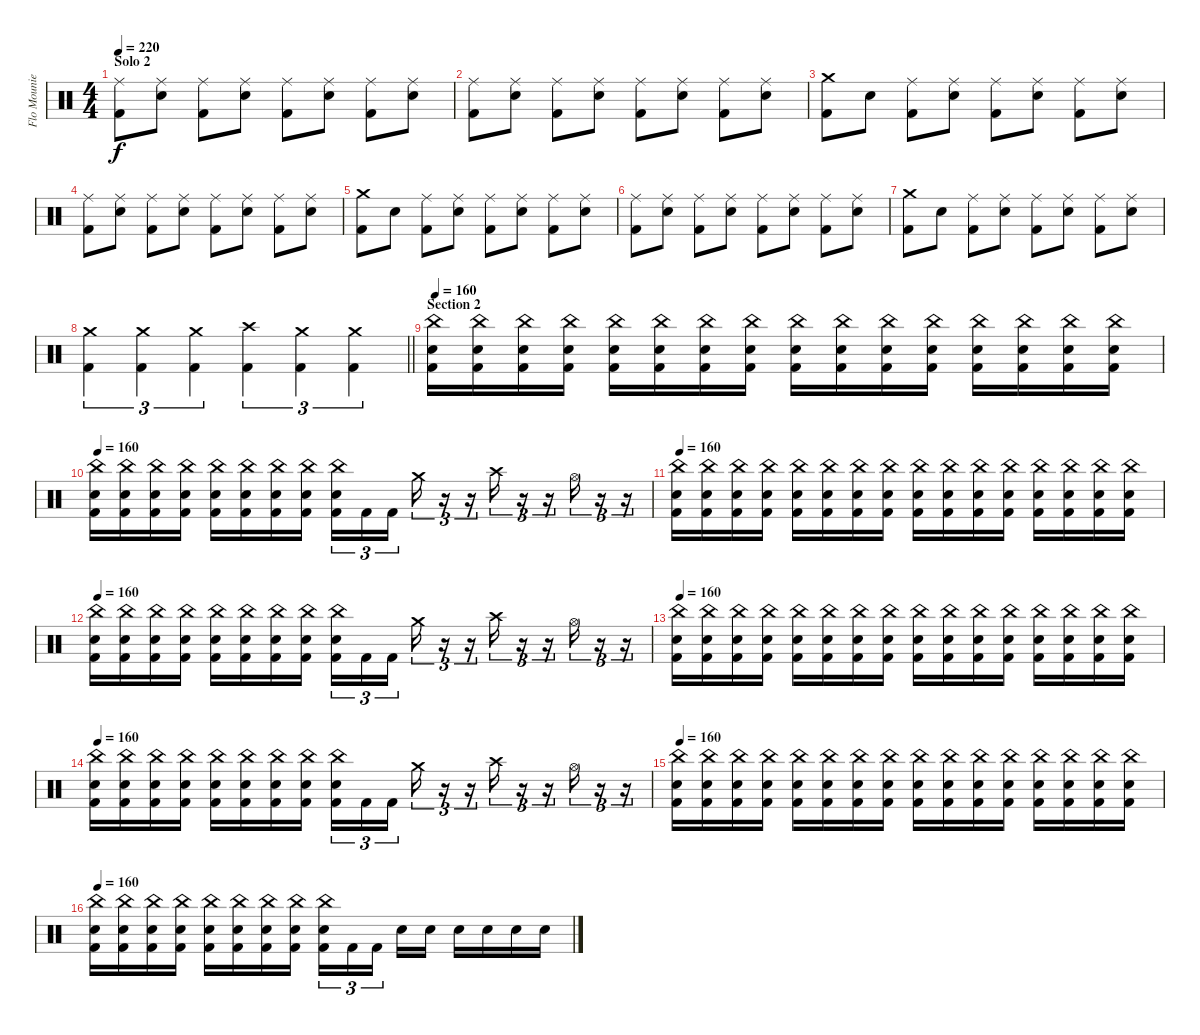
\track ("Flo Mounier" "Flo Mounie") {instrument percussion}
\staff {score}
\articulation defaults
\ts (4 4)
\section ("" "Solo 2")
\tempo 220
\clef neutral
\ks c
("Ride (middle)" "Kick (hit) 2").8{dy f} ("Ride (middle)" "Electric Snare (hit)").8 ("Ride (middle)" "Kick (hit) 2").8 ("Ride (middle)" "Electric Snare (hit)").8 ("Ride (middle)" "Kick (hit) 2").8 ("Ride (middle)" "Electric Snare (hit)").8 ("Ride (middle)" "Kick (hit) 2").8 ("Ride (middle)" "Electric Snare (hit)").8 |
("Ride (middle)" "Kick (hit) 2").8 ("Ride (middle)" "Electric Snare (hit)").8 ("Ride (middle)" "Kick (hit) 2").8 ("Ride (middle)" "Electric Snare (hit)").8 ("Ride (middle)" "Kick (hit) 2").8 ("Ride (middle)" "Electric Snare (hit)").8 ("Ride (middle)" "Kick (hit) 2").8 ("Ride (middle)" "Electric Snare (hit)").8 |
("Crash medium (hit)" "Kick (hit) 2").8 "Electric Snare (hit)".8 ("Ride (middle)" "Kick (hit) 2").8 ("Ride (middle)" "Electric Snare (hit)").8 ("Ride (middle)" "Kick (hit) 2").8 ("Ride (middle)" "Electric Snare (hit)").8 ("Ride (middle)" "Kick (hit) 2").8 ("Ride (middle)" "Electric Snare (hit)").8 |
("Ride (middle)" "Kick (hit) 2").8 ("Ride (middle)" "Electric Snare (hit)").8 ("Ride (middle)" "Kick (hit) 2").8 ("Ride (middle)" "Electric Snare (hit)").8 ("Ride (middle)" "Kick (hit) 2").8 ("Ride (middle)" "Electric Snare (hit)").8 ("Ride (middle)" "Kick (hit) 2").8 ("Ride (middle)" "Electric Snare (hit)").8 |
("Crash medium (hit)" "Kick (hit) 2").8 "Electric Snare (hit)".8 ("Ride (middle)" "Kick (hit) 2").8 ("Ride (middle)" "Electric Snare (hit)").8 ("Ride (middle)" "Kick (hit) 2").8 ("Ride (middle)" "Electric Snare (hit)").8 ("Ride (middle)" "Kick (hit) 2").8 ("Ride (middle)" "Electric Snare (hit)").8 |
("Ride (middle)" "Kick (hit) 2").8 ("Ride (middle)" "Electric Snare (hit)").8 ("Ride (middle)" "Kick (hit) 2").8 ("Ride (middle)" "Electric Snare (hit)").8 ("Ride (middle)" "Kick (hit) 2").8 ("Ride (middle)" "Electric Snare (hit)").8 ("Ride (middle)" "Kick (hit) 2").8 ("Ride (middle)" "Electric Snare (hit)").8 |
("Crash medium (hit)" "Kick (hit) 2").8 "Electric Snare (hit)".8 ("Ride (middle)" "Kick (hit) 2").8 ("Ride (middle)" "Electric Snare (hit)").8 ("Ride (middle)" "Kick (hit) 2").8 ("Ride (middle)" "Electric Snare (hit)").8 ("Ride (middle)" "Kick (hit) 2").8 ("Ride (middle)" "Electric Snare (hit)").8 |
\barLineRight lightlight
("Crash medium (hit)" "Kick (hit) 2").4{tu (3 2)} ("Crash medium (hit)" "Kick (hit) 2").4{tu (3 2)} ("Crash medium (hit)" "Kick (hit) 2").4{tu (3 2)} ("Crash high (hit)" "Kick (hit) 2").4{tu (3 2)} ("Crash medium (hit)" "Kick (hit) 2").4{tu (3 2)} ("Crash medium (hit)" "Kick (hit) 2").4{tu (3 2)} |
\section ("" "Section 2")
\tempo 160
("China (hit)" "Electric Snare (hit)" "Kick (hit) 2").16 ("China (hit)" "Electric Snare (hit)" "Kick (hit) 2").16 ("China (hit)" "Electric Snare (hit)" "Kick (hit) 2").16 ("China (hit)" "Electric Snare (hit)" "Kick (hit) 2").16 ("China (hit)" "Electric Snare (hit)" "Kick (hit) 2").16 ("China (hit)" "Electric Snare (hit)" "Kick (hit) 2").16 ("China (hit)" "Electric Snare (hit)" "Kick (hit) 2").16 ("China (hit)" "Electric Snare (hit)" "Kick (hit) 2").16 ("China (hit)" "Electric Snare (hit)" "Kick (hit) 2").16 ("China (hit)" "Electric Snare (hit)" "Kick (hit) 2").16 ("China (hit)" "Electric Snare (hit)" "Kick (hit) 2").16 ("China (hit)" "Electric Snare (hit)" "Kick (hit) 2").16 ("China (hit)" "Electric Snare (hit)" "Kick (hit) 2").16 ("China (hit)" "Electric Snare (hit)" "Kick (hit) 2").16 ("China (hit)" "Electric Snare (hit)" "Kick (hit) 2").16 ("China (hit)" "Electric Snare (hit)" "Kick (hit) 2").16 |
\tempo 160
("China (hit)" "Electric Snare (hit)" "Kick (hit) 2").16 ("China (hit)" "Electric Snare (hit)" "Kick (hit) 2").16 ("China (hit)" "Electric Snare (hit)" "Kick (hit) 2").16 ("China (hit)" "Electric Snare (hit)" "Kick (hit) 2").16 ("China (hit)" "Electric Snare (hit)" "Kick (hit) 2").16 ("China (hit)" "Electric Snare (hit)" "Kick (hit) 2").16 ("China (hit)" "Electric Snare (hit)" "Kick (hit) 2").16 ("China (hit)" "Electric Snare (hit)" "Kick (hit) 2").16 ("China (hit)" "Electric Snare (hit)" "Kick (hit) 2").16{tu (3 2)} "Kick (hit) 2".16{tu (3 2)} "Kick (hit) 2".16{tu (3 2) beam splitsecondary} "Crash medium (hit)".16{tu (3 2)} r.16{tu (3 2)} r.16{tu (3 2)} "Crash high (hit)".16{tu (3 2)} r.16{tu (3 2)} r.16{tu (3 2)} "Hi-Hat (open)".16{tu (3 2)} r.16{tu (3 2)} r.16{tu (3 2)} |
\tempo 160
("China (hit)" "Electric Snare (hit)" "Kick (hit) 2").16 ("China (hit)" "Electric Snare (hit)" "Kick (hit) 2").16 ("China (hit)" "Electric Snare (hit)" "Kick (hit) 2").16 ("China (hit)" "Electric Snare (hit)" "Kick (hit) 2").16 ("China (hit)" "Electric Snare (hit)" "Kick (hit) 2").16 ("China (hit)" "Electric Snare (hit)" "Kick (hit) 2").16 ("China (hit)" "Electric Snare (hit)" "Kick (hit) 2").16 ("China (hit)" "Electric Snare (hit)" "Kick (hit) 2").16 ("China (hit)" "Electric Snare (hit)" "Kick (hit) 2").16 ("China (hit)" "Electric Snare (hit)" "Kick (hit) 2").16 ("China (hit)" "Electric Snare (hit)" "Kick (hit) 2").16 ("China (hit)" "Electric Snare (hit)" "Kick (hit) 2").16 ("China (hit)" "Electric Snare (hit)" "Kick (hit) 2").16 ("China (hit)" "Electric Snare (hit)" "Kick (hit) 2").16 ("China (hit)" "Electric Snare (hit)" "Kick (hit) 2").16 ("China (hit)" "Electric Snare (hit)" "Kick (hit) 2").16 |
\tempo 160
("China (hit)" "Electric Snare (hit)" "Kick (hit) 2").16 ("China (hit)" "Electric Snare (hit)" "Kick (hit) 2").16 ("China (hit)" "Electric Snare (hit)" "Kick (hit) 2").16 ("China (hit)" "Electric Snare (hit)" "Kick (hit) 2").16 ("China (hit)" "Electric Snare (hit)" "Kick (hit) 2").16 ("China (hit)" "Electric Snare (hit)" "Kick (hit) 2").16 ("China (hit)" "Electric Snare (hit)" "Kick (hit) 2").16 ("China (hit)" "Electric Snare (hit)" "Kick (hit) 2").16 ("China (hit)" "Electric Snare (hit)" "Kick (hit) 2").16{tu (3 2)} "Kick (hit) 2".16{tu (3 2)} "Kick (hit) 2".16{tu (3 2) beam splitsecondary} "Crash medium (hit)".16{tu (3 2)} r.16{tu (3 2)} r.16{tu (3 2)} "Crash high (hit)".16{tu (3 2)} r.16{tu (3 2)} r.16{tu (3 2)} "Hi-Hat (open)".16{tu (3 2)} r.16{tu (3 2)} r.16{tu (3 2)} |
\tempo 160
("China (hit)" "Electric Snare (hit)" "Kick (hit) 2").16 ("China (hit)" "Electric Snare (hit)" "Kick (hit) 2").16 ("China (hit)" "Electric Snare (hit)" "Kick (hit) 2").16 ("China (hit)" "Electric Snare (hit)" "Kick (hit) 2").16 ("China (hit)" "Electric Snare (hit)" "Kick (hit) 2").16 ("China (hit)" "Electric Snare (hit)" "Kick (hit) 2").16 ("China (hit)" "Electric Snare (hit)" "Kick (hit) 2").16 ("China (hit)" "Electric Snare (hit)" "Kick (hit) 2").16 ("China (hit)" "Electric Snare (hit)" "Kick (hit) 2").16 ("China (hit)" "Electric Snare (hit)" "Kick (hit) 2").16 ("China (hit)" "Electric Snare (hit)" "Kick (hit) 2").16 ("China (hit)" "Electric Snare (hit)" "Kick (hit) 2").16 ("China (hit)" "Electric Snare (hit)" "Kick (hit) 2").16 ("China (hit)" "Electric Snare (hit)" "Kick (hit) 2").16 ("China (hit)" "Electric Snare (hit)" "Kick (hit) 2").16 ("China (hit)" "Electric Snare (hit)" "Kick (hit) 2").16 |
\tempo 160
("China (hit)" "Electric Snare (hit)" "Kick (hit) 2").16 ("China (hit)" "Electric Snare (hit)" "Kick (hit) 2").16 ("China (hit)" "Electric Snare (hit)" "Kick (hit) 2").16 ("China (hit)" "Electric Snare (hit)" "Kick (hit) 2").16 ("China (hit)" "Electric Snare (hit)" "Kick (hit) 2").16 ("China (hit)" "Electric Snare (hit)" "Kick (hit) 2").16 ("China (hit)" "Electric Snare (hit)" "Kick (hit) 2").16 ("China (hit)" "Electric Snare (hit)" "Kick (hit) 2").16 ("China (hit)" "Electric Snare (hit)" "Kick (hit) 2").16{tu (3 2)} "Kick (hit) 2".16{tu (3 2)} "Kick (hit) 2".16{tu (3 2) beam splitsecondary} "Crash medium (hit)".16{tu (3 2)} r.16{tu (3 2)} r.16{tu (3 2)} "Crash high (hit)".16{tu (3 2)} r.16{tu (3 2)} r.16{tu (3 2)} "Hi-Hat (open)".16{tu (3 2)} r.16{tu (3 2)} r.16{tu (3 2)} |
\tempo 160
("China (hit)" "Electric Snare (hit)" "Kick (hit) 2").16 ("China (hit)" "Electric Snare (hit)" "Kick (hit) 2").16 ("China (hit)" "Electric Snare (hit)" "Kick (hit) 2").16 ("China (hit)" "Electric Snare (hit)" "Kick (hit) 2").16 ("China (hit)" "Electric Snare (hit)" "Kick (hit) 2").16 ("China (hit)" "Electric Snare (hit)" "Kick (hit) 2").16 ("China (hit)" "Electric Snare (hit)" "Kick (hit) 2").16 ("China (hit)" "Electric Snare (hit)" "Kick (hit) 2").16 ("China (hit)" "Electric Snare (hit)" "Kick (hit) 2").16 ("China (hit)" "Electric Snare (hit)" "Kick (hit) 2").16 ("China (hit)" "Electric Snare (hit)" "Kick (hit) 2").16 ("China (hit)" "Electric Snare (hit)" "Kick (hit) 2").16 ("China (hit)" "Electric Snare (hit)" "Kick (hit) 2").16 ("China (hit)" "Electric Snare (hit)" "Kick (hit) 2").16 ("China (hit)" "Electric Snare (hit)" "Kick (hit) 2").16 ("China (hit)" "Electric Snare (hit)" "Kick (hit) 2").16 |
\tempo 160
("China (hit)" "Electric Snare (hit)" "Kick (hit) 2").16 ("China (hit)" "Electric Snare (hit)" "Kick (hit) 2").16 ("China (hit)" "Electric Snare (hit)" "Kick (hit) 2").16 ("China (hit)" "Electric Snare (hit)" "Kick (hit) 2").16 ("China (hit)" "Electric Snare (hit)" "Kick (hit) 2").16 ("China (hit)" "Electric Snare (hit)" "Kick (hit) 2").16 ("China (hit)" "Electric Snare (hit)" "Kick (hit) 2").16 ("China (hit)" "Electric Snare (hit)" "Kick (hit) 2").16 ("China (hit)" "Electric Snare (hit)" "Kick (hit) 2").16{tu (3 2)} "Kick (hit) 2".16{tu (3 2)} "Kick (hit) 2".16{tu (3 2) beam splitsecondary} "Electric Snare (hit)".16 "Electric Snare (hit)".16 "Electric Snare (hit)".16 "Electric Snare (hit)".16 "Electric Snare (hit)".16 "Electric Snare (hit)".16
